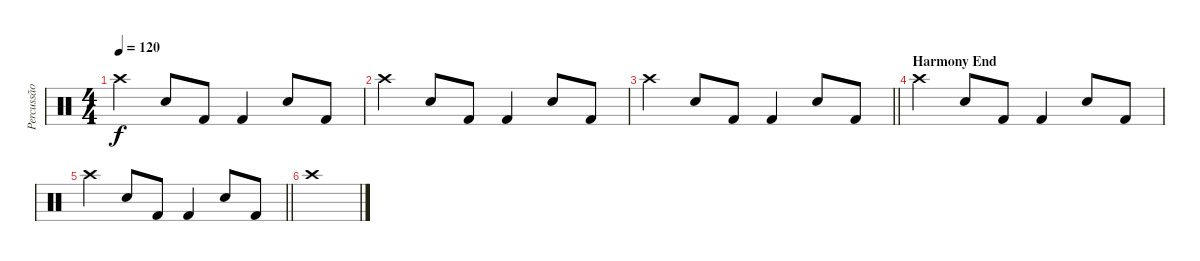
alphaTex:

\track ("Percussão" "Percussão") {instrument percussion}
\staff {score}
\articulation defaults
\ts (4 4)
\tempo 120
\clef neutral
\ks c "Crash high (hit)".4{dy f} "Snare (hit) 2".8 "Kick (hit) 2".8 "Kick (hit) 2".4 "Snare (hit) 2".8 "Kick (hit) 2".8
|
"Crash high (hit)".4 "Snare (hit) 2".8 "Kick (hit) 2".8 "Kick (hit) 2".4 "Snare (hit) 2".8 "Kick (hit) 2".8 |
\barLineRight lightlight "Crash high (hit)".4 "Snare (hit) 2".8 "Kick (hit) 2".8 "Kick (hit) 2".4 "Snare (hit) 2".8 "Kick (hit) 2".8
|
\section ("" "Harmony End")
"Crash high (hit)".4 "Snare (hit) 2".8 "Kick (hit) 2".8 "Kick (hit) 2".4 "Snare (hit) 2".8 "Kick (hit) 2".8 |
\barLineRight lightlight "Crash high (hit)".4 "Snare (hit) 2".8 "Kick (hit) 2".8 "Kick (hit) 2".4 "Snare (hit) 2".8 "Kick (hit) 2".8
|
"Crash high (hit)".1
